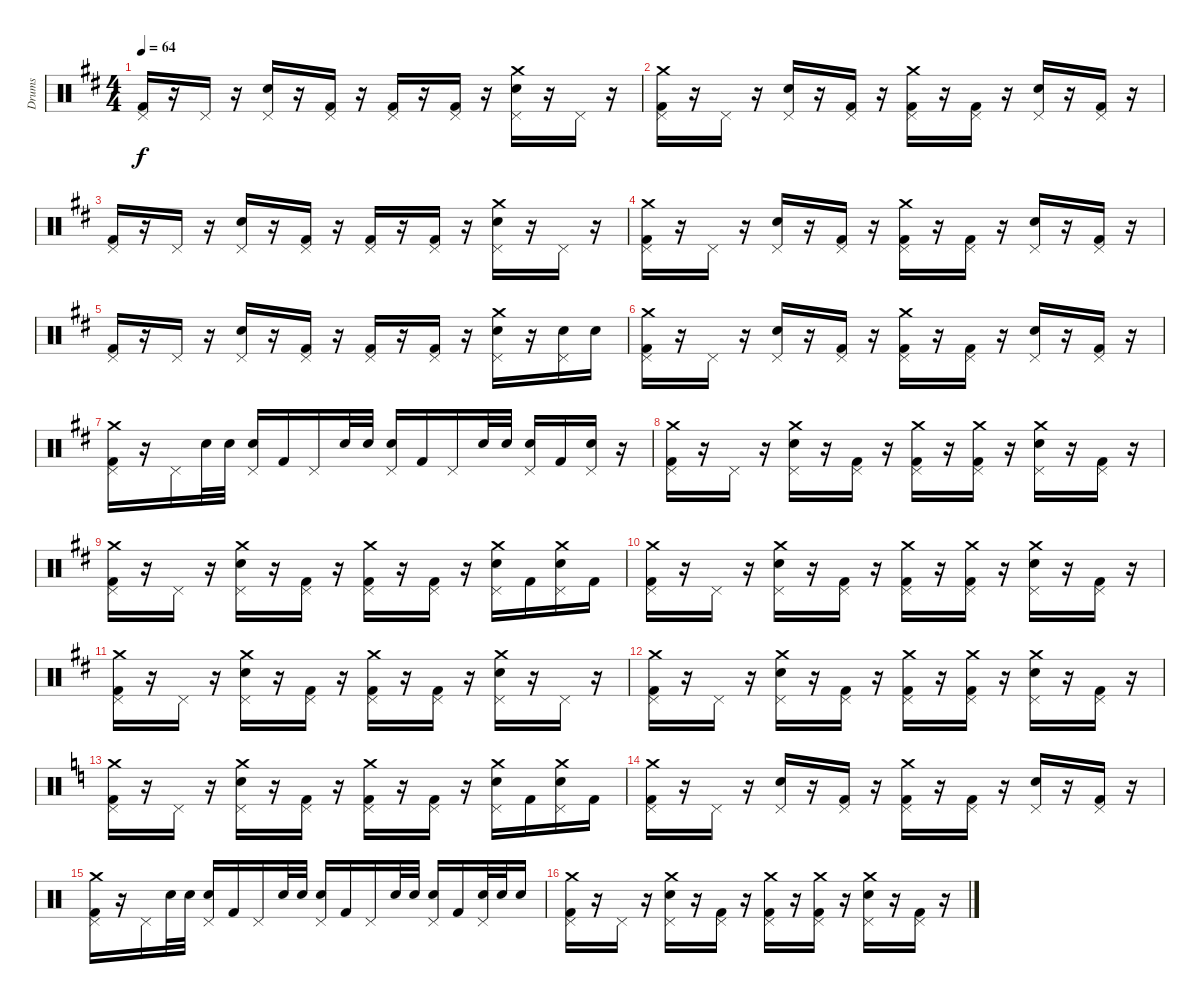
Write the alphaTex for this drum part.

\track ("Drums" "Drums") {instrument percussion}
\staff {score}
\articulation defaults
\ts (4 4)
\tempo 64
\clef neutral
\ks d
("Pedal Hi-Hat (hit)" "Kick (hit) 2").16{dy f} r.16 "Pedal Hi-Hat (hit)".16 r.16 ("Pedal Hi-Hat (hit)" "Snare (hit) 2").16 r.16 ("Pedal Hi-Hat (hit)" "Kick (hit) 2").16 r.16 ("Pedal Hi-Hat (hit)" "Kick (hit) 2").16 r.16 ("Pedal Hi-Hat (hit)" "Kick (hit) 2").16 r.16 ("Crash medium (hit)" "Pedal Hi-Hat (hit)" "Snare (hit) 2").16 r.16 "Pedal Hi-Hat (hit)".16 r.16 |
("Crash medium (hit)" "Pedal Hi-Hat (hit)" "Kick (hit) 2").16 r.16 "Pedal Hi-Hat (hit)".16 r.16 ("Pedal Hi-Hat (hit)" "Snare (hit) 2").16 r.16 ("Pedal Hi-Hat (hit)" "Kick (hit) 2").16 r.16 ("Crash medium (hit)" "Pedal Hi-Hat (hit)" "Kick (hit) 2").16 r.16 ("Pedal Hi-Hat (hit)" "Kick (hit) 2").16 r.16 ("Pedal Hi-Hat (hit)" "Snare (hit) 2").16 r.16 ("Pedal Hi-Hat (hit)" "Kick (hit) 2").16 r.16 |
("Pedal Hi-Hat (hit)" "Kick (hit) 2").16 r.16 "Pedal Hi-Hat (hit)".16 r.16 ("Pedal Hi-Hat (hit)" "Snare (hit) 2").16 r.16 ("Pedal Hi-Hat (hit)" "Kick (hit) 2").16 r.16 ("Pedal Hi-Hat (hit)" "Kick (hit) 2").16 r.16 ("Pedal Hi-Hat (hit)" "Kick (hit) 2").16 r.16 ("Crash medium (hit)" "Pedal Hi-Hat (hit)" "Snare (hit) 2").16 r.16 "Pedal Hi-Hat (hit)".16 r.16 |
("Crash medium (hit)" "Pedal Hi-Hat (hit)" "Kick (hit) 2").16 r.16 "Pedal Hi-Hat (hit)".16 r.16 ("Pedal Hi-Hat (hit)" "Snare (hit) 2").16 r.16 ("Pedal Hi-Hat (hit)" "Kick (hit) 2").16 r.16 ("Crash medium (hit)" "Pedal Hi-Hat (hit)" "Kick (hit) 2").16 r.16 ("Pedal Hi-Hat (hit)" "Kick (hit) 2").16 r.16 ("Pedal Hi-Hat (hit)" "Snare (hit) 2").16 r.16 ("Pedal Hi-Hat (hit)" "Kick (hit) 2").16 r.16 |
("Pedal Hi-Hat (hit)" "Kick (hit) 2").16 r.16 "Pedal Hi-Hat (hit)".16 r.16 ("Pedal Hi-Hat (hit)" "Snare (hit) 2").16 r.16 ("Pedal Hi-Hat (hit)" "Kick (hit) 2").16 r.16 ("Pedal Hi-Hat (hit)" "Kick (hit) 2").16 r.16 ("Pedal Hi-Hat (hit)" "Kick (hit) 2").16 r.16 ("Crash medium (hit)" "Pedal Hi-Hat (hit)" "Snare (hit) 2").16 r.16 ("Pedal Hi-Hat (hit)" "Snare (hit) 2").16 "Snare (hit) 2".16 |
("Crash medium (hit)" "Pedal Hi-Hat (hit)" "Kick (hit) 2").16 r.16 "Pedal Hi-Hat (hit)".16 r.16 ("Pedal Hi-Hat (hit)" "Snare (hit) 2").16 r.16 ("Pedal Hi-Hat (hit)" "Kick (hit) 2").16 r.16 ("Crash medium (hit)" "Pedal Hi-Hat (hit)" "Kick (hit) 2").16 r.16 ("Pedal Hi-Hat (hit)" "Kick (hit) 2").16 r.16 ("Pedal Hi-Hat (hit)" "Snare (hit) 2").16 r.16 ("Pedal Hi-Hat (hit)" "Kick (hit) 2").16 r.16 |
("Crash medium (hit)" "Pedal Hi-Hat (hit)" "Kick (hit) 2").16 r.16 "Pedal Hi-Hat (hit)".16 "Snare (hit) 2".32 "Snare (hit) 2".32 ("Pedal Hi-Hat (hit)" "Snare (hit) 2").16 "Kick (hit) 2".16 "Pedal Hi-Hat (hit)".16 "Snare (hit) 2".32 "Snare (hit) 2".32 ("Pedal Hi-Hat (hit)" "Snare (hit) 2").16 "Kick (hit) 2".16 "Pedal Hi-Hat (hit)".16 "Snare (hit) 2".32 "Snare (hit) 2".32 ("Pedal Hi-Hat (hit)" "Snare (hit) 2").16 "Kick (hit) 2".16 ("Pedal Hi-Hat (hit)" "Snare (hit) 2").16 r.16 |
("Crash medium (hit)" "Pedal Hi-Hat (hit)" "Kick (hit) 2").16 r.16 "Pedal Hi-Hat (hit)".16 r.16 ("Crash medium (hit)" "Pedal Hi-Hat (hit)" "Snare (hit) 2").16 r.16 ("Pedal Hi-Hat (hit)" "Kick (hit) 2").16 r.16 ("Crash medium (hit)" "Pedal Hi-Hat (hit)" "Kick (hit) 2").16 r.16 ("Crash medium (hit)" "Pedal Hi-Hat (hit)" "Kick (hit) 2").16 r.16 ("Crash medium (hit)" "Pedal Hi-Hat (hit)" "Snare (hit) 2").16 r.16 ("Pedal Hi-Hat (hit)" "Kick (hit) 2").16 r.16 |
("Crash medium (hit)" "Pedal Hi-Hat (hit)" "Kick (hit) 2").16 r.16 "Pedal Hi-Hat (hit)".16 r.16 ("Crash medium (hit)" "Pedal Hi-Hat (hit)" "Snare (hit) 2").16 r.16 ("Pedal Hi-Hat (hit)" "Kick (hit) 2").16 r.16 ("Crash medium (hit)" "Pedal Hi-Hat (hit)" "Kick (hit) 2").16 r.16 ("Pedal Hi-Hat (hit)" "Kick (hit) 2").16 r.16 ("Crash medium (hit)" "Pedal Hi-Hat (hit)" "Snare (hit) 2").16 "Kick (hit) 2".16 ("Crash medium (hit)" "Pedal Hi-Hat (hit)" "Snare (hit) 2").16 "Kick (hit) 2".16 |
("Crash medium (hit)" "Pedal Hi-Hat (hit)" "Kick (hit) 2").16 r.16 "Pedal Hi-Hat (hit)".16 r.16 ("Crash medium (hit)" "Pedal Hi-Hat (hit)" "Snare (hit) 2").16 r.16 ("Pedal Hi-Hat (hit)" "Kick (hit) 2").16 r.16 ("Crash medium (hit)" "Pedal Hi-Hat (hit)" "Kick (hit) 2").16 r.16 ("Crash medium (hit)" "Pedal Hi-Hat (hit)" "Kick (hit) 2").16 r.16 ("Crash medium (hit)" "Pedal Hi-Hat (hit)" "Snare (hit) 2").16 r.16 ("Pedal Hi-Hat (hit)" "Kick (hit) 2").16 r.16 |
("Crash medium (hit)" "Pedal Hi-Hat (hit)" "Kick (hit) 2").16 r.16 "Pedal Hi-Hat (hit)".16 r.16 ("Crash medium (hit)" "Pedal Hi-Hat (hit)" "Snare (hit) 2").16 r.16 ("Pedal Hi-Hat (hit)" "Kick (hit) 2").16 r.16 ("Crash medium (hit)" "Pedal Hi-Hat (hit)" "Kick (hit) 2").16 r.16 ("Pedal Hi-Hat (hit)" "Kick (hit) 2").16 r.16 ("Crash medium (hit)" "Pedal Hi-Hat (hit)" "Snare (hit) 2").16 r.16 "Pedal Hi-Hat (hit)".16 r.16 |
("Crash medium (hit)" "Pedal Hi-Hat (hit)" "Kick (hit) 2").16 r.16 "Pedal Hi-Hat (hit)".16 r.16 ("Crash medium (hit)" "Pedal Hi-Hat (hit)" "Snare (hit) 2").16 r.16 ("Pedal Hi-Hat (hit)" "Kick (hit) 2").16 r.16 ("Crash medium (hit)" "Pedal Hi-Hat (hit)" "Kick (hit) 2").16 r.16 ("Crash medium (hit)" "Pedal Hi-Hat (hit)" "Kick (hit) 2").16 r.16 ("Crash medium (hit)" "Pedal Hi-Hat (hit)" "Snare (hit) 2").16 r.16 ("Pedal Hi-Hat (hit)" "Kick (hit) 2").16 r.16 |
\ks c
("Crash medium (hit)" "Pedal Hi-Hat (hit)" "Kick (hit) 2").16 r.16 "Pedal Hi-Hat (hit)".16 r.16 ("Crash medium (hit)" "Pedal Hi-Hat (hit)" "Snare (hit) 2").16 r.16 ("Pedal Hi-Hat (hit)" "Kick (hit) 2").16 r.16 ("Crash medium (hit)" "Pedal Hi-Hat (hit)" "Kick (hit) 2").16 r.16 ("Pedal Hi-Hat (hit)" "Kick (hit) 2").16 r.16 ("Crash medium (hit)" "Pedal Hi-Hat (hit)" "Snare (hit) 2").16 "Kick (hit) 2".16 ("Crash medium (hit)" "Pedal Hi-Hat (hit)" "Snare (hit) 2").16 "Kick (hit) 2".16 |
("Crash medium (hit)" "Pedal Hi-Hat (hit)" "Kick (hit) 2").16 r.16 "Pedal Hi-Hat (hit)".16 r.16 ("Pedal Hi-Hat (hit)" "Snare (hit) 2").16 r.16 ("Pedal Hi-Hat (hit)" "Kick (hit) 2").16 r.16 ("Crash medium (hit)" "Pedal Hi-Hat (hit)" "Kick (hit) 2").16 r.16 ("Pedal Hi-Hat (hit)" "Kick (hit) 2").16 r.16 ("Pedal Hi-Hat (hit)" "Snare (hit) 2").16 r.16 ("Pedal Hi-Hat (hit)" "Kick (hit) 2").16 r.16 |
("Crash medium (hit)" "Pedal Hi-Hat (hit)" "Kick (hit) 2").16 r.16 "Pedal Hi-Hat (hit)".16 "Snare (hit) 2".32 "Snare (hit) 2".32 ("Pedal Hi-Hat (hit)" "Snare (hit) 2").16 "Kick (hit) 2".16 "Pedal Hi-Hat (hit)".16 "Snare (hit) 2".32 "Snare (hit) 2".32 ("Pedal Hi-Hat (hit)" "Snare (hit) 2").16 "Kick (hit) 2".16 "Pedal Hi-Hat (hit)".16 "Snare (hit) 2".32 "Snare (hit) 2".32 ("Pedal Hi-Hat (hit)" "Snare (hit) 2").16 "Kick (hit) 2".16 ("Pedal Hi-Hat (hit)" "Snare (hit) 2").32 "Snare (hit) 2".32 "Snare (hit) 2".16 |
("Crash medium (hit)" "Pedal Hi-Hat (hit)" "Kick (hit) 2").16 r.16 "Pedal Hi-Hat (hit)".16 r.16 ("Crash medium (hit)" "Pedal Hi-Hat (hit)" "Snare (hit) 2").16 r.16 ("Pedal Hi-Hat (hit)" "Kick (hit) 2").16 r.16 ("Crash medium (hit)" "Pedal Hi-Hat (hit)" "Kick (hit) 2").16 r.16 ("Crash medium (hit)" "Pedal Hi-Hat (hit)" "Kick (hit) 2").16 r.16 ("Crash medium (hit)" "Pedal Hi-Hat (hit)" "Snare (hit) 2").16 r.16 ("Pedal Hi-Hat (hit)" "Kick (hit) 2").16 r.16
